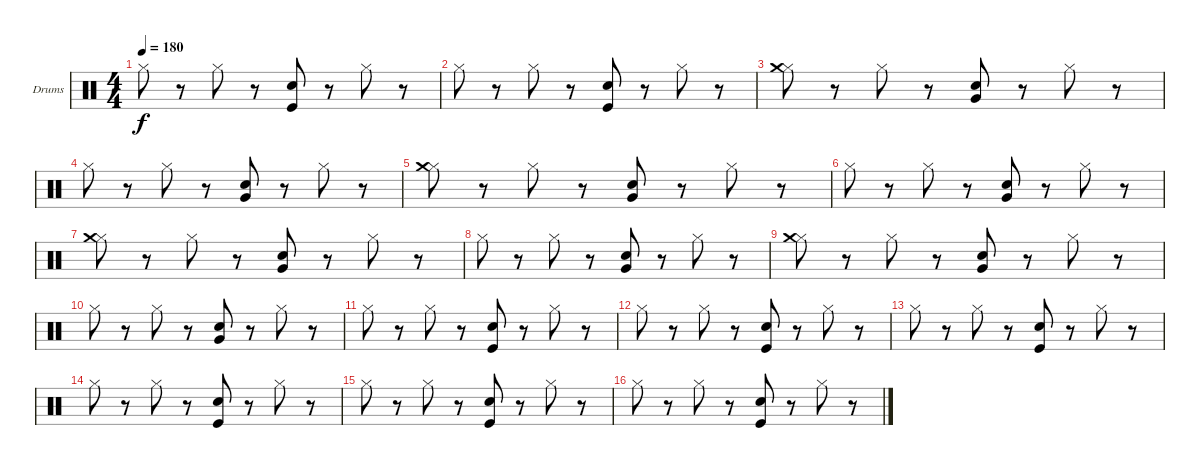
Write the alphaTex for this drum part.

\bracketExtendMode groupsimilarinstruments
\firstSystemTrackNameOrientation horizontal
\otherSystemsTrackNameOrientation horizontal
\track ("Drumkit" "Drums") {instrument percussion}
\staff {score}
\articulation defaults
\ts (4 4)
\tempo 180
\clef neutral
\ks c "Hi-Hat (closed)".8{dy f}
r.8 "Hi-Hat (closed)".8 r.8 ("Snare (hit) 2" "Kick (hit)").8 r.8 "Hi-Hat (closed)".8 r.8 |
"Hi-Hat (closed)".8 r.8 "Hi-Hat (closed)".8 r.8 ("Snare (hit) 2" "Kick (hit)").8 r.8 "Hi-Hat (closed)".8 r.8 |
("Hi-Hat (closed)" "Crash medium (hit)").8 r.8 "Hi-Hat (closed)".8 r.8 ("Snare (hit) 2" "Very Low Tom (hit)").8 r.8 "Hi-Hat (closed)".8 r.8 |
"Hi-Hat (closed)".8 r.8 "Hi-Hat (closed)".8 r.8 ("Snare (hit) 2" "Very Low Tom (hit)").8 r.8 "Hi-Hat (closed)".8 r.8 |
("Hi-Hat (closed)" "Crash medium (hit)").8 r.8 "Hi-Hat (closed)".8 r.8 ("Snare (hit) 2" "Very Low Tom (hit)").8 r.8 "Hi-Hat (closed)".8 r.8 |
"Hi-Hat (closed)".8 r.8 "Hi-Hat (closed)".8 r.8 ("Snare (hit) 2" "Very Low Tom (hit)").8 r.8 "Hi-Hat (closed)".8 r.8 |
("Hi-Hat (closed)" "Crash medium (hit)").8 r.8 "Hi-Hat (closed)".8 r.8 ("Snare (hit) 2" "Very Low Tom (hit)").8 r.8 "Hi-Hat (closed)".8 r.8 |
"Hi-Hat (closed)".8 r.8 "Hi-Hat (closed)".8 r.8 ("Snare (hit) 2" "Very Low Tom (hit)").8 r.8 "Hi-Hat (closed)".8 r.8 |
("Hi-Hat (closed)" "Crash medium (hit)").8 r.8 "Hi-Hat (closed)".8 r.8 ("Snare (hit) 2" "Very Low Tom (hit)").8 r.8 "Hi-Hat (closed)".8 r.8 |
"Hi-Hat (closed)".8 r.8 "Hi-Hat (closed)".8 r.8 ("Snare (hit) 2" "Very Low Tom (hit)").8 r.8 "Hi-Hat (closed)".8 r.8 |
"Hi-Hat (closed)".8 r.8 "Hi-Hat (closed)".8 r.8 ("Snare (hit) 2" "Kick (hit)").8 r.8 "Hi-Hat (closed)".8 r.8 |
"Hi-Hat (closed)".8 r.8 "Hi-Hat (closed)".8 r.8 ("Snare (hit) 2" "Kick (hit)").8 r.8 "Hi-Hat (closed)".8 r.8 |
"Hi-Hat (closed)".8 r.8 "Hi-Hat (closed)".8 r.8 ("Snare (hit) 2" "Kick (hit)").8 r.8 "Hi-Hat (closed)".8 r.8 |
"Hi-Hat (closed)".8 r.8 "Hi-Hat (closed)".8 r.8 ("Snare (hit) 2" "Kick (hit)").8 r.8 "Hi-Hat (closed)".8 r.8 |
"Hi-Hat (closed)".8 r.8 "Hi-Hat (closed)".8 r.8 ("Snare (hit) 2" "Kick (hit)").8 r.8 "Hi-Hat (closed)".8 r.8 |
"Hi-Hat (closed)".8 r.8 "Hi-Hat (closed)".8 r.8 ("Snare (hit) 2" "Kick (hit)").8 r.8 "Hi-Hat (closed)".8 r.8
